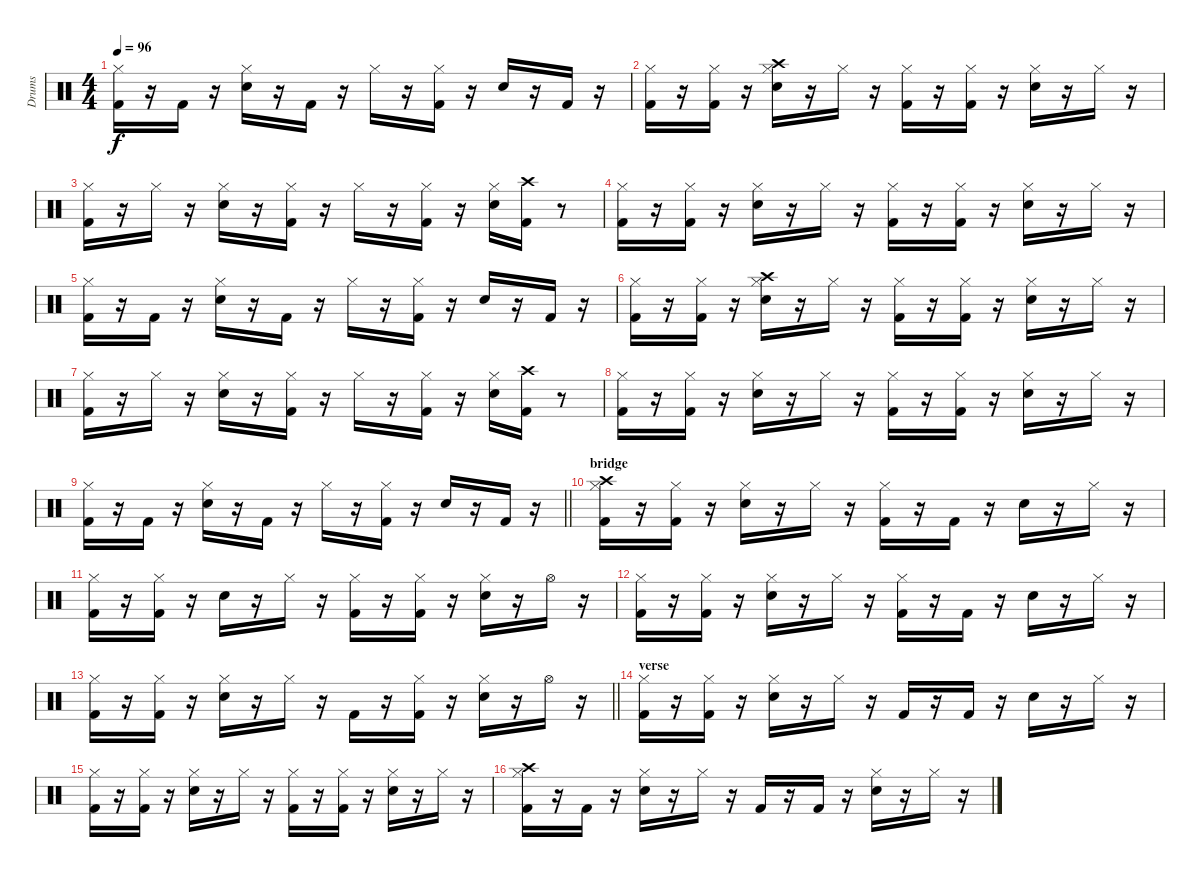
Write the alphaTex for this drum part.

\track ("Drums" "Drums") {instrument percussion}
\staff {score}
\articulation defaults
\ts (4 4)
\tempo 96
\clef neutral
\ks c
("Kick (hit) 2" "Hi-Hat (closed)").16{dy f} r.16 "Kick (hit) 2".16 r.16 ("Snare (hit) 2" "Hi-Hat (closed)").16 r.16 "Kick (hit) 2".16 r.16 "Hi-Hat (closed)".16 r.16 ("Kick (hit) 2" "Hi-Hat (closed)").16 r.16 "Snare (hit) 2".16 r.16 "Kick (hit) 2".16 r.16 |
("Kick (hit) 2" "Hi-Hat (closed)").16 r.16 ("Kick (hit) 2" "Hi-Hat (closed)").16 r.16 ("Snare (hit) 2" "Hi-Hat (closed)" "Crash high (hit)").16 r.16 "Hi-Hat (closed)".16 r.16 ("Kick (hit) 2" "Hi-Hat (closed)").16 r.16 ("Kick (hit) 2" "Hi-Hat (closed)").16 r.16 ("Snare (hit) 2" "Hi-Hat (closed)").16 r.16 "Hi-Hat (closed)".16 r.16 |
("Kick (hit) 2" "Hi-Hat (closed)").16 r.16 "Hi-Hat (closed)".16 r.16 ("Snare (hit) 2" "Hi-Hat (closed)").16 r.16 ("Kick (hit) 2" "Hi-Hat (closed)").16 r.16 "Hi-Hat (closed)".16 r.16 ("Kick (hit) 2" "Hi-Hat (closed)").16 r.16 ("Snare (hit) 2" "Hi-Hat (closed)").16 ("Kick (hit) 2" "Crash high (hit)").16 r.8 |
("Kick (hit) 2" "Hi-Hat (closed)").16 r.16 ("Kick (hit) 2" "Hi-Hat (closed)").16 r.16 ("Snare (hit) 2" "Hi-Hat (closed)").16 r.16 "Hi-Hat (closed)".16 r.16 ("Kick (hit) 2" "Hi-Hat (closed)").16 r.16 ("Kick (hit) 2" "Hi-Hat (closed)").16 r.16 ("Snare (hit) 2" "Hi-Hat (closed)").16 r.16 "Hi-Hat (closed)".16 r.16 |
("Kick (hit) 2" "Hi-Hat (closed)").16 r.16 "Kick (hit) 2".16 r.16 ("Snare (hit) 2" "Hi-Hat (closed)").16 r.16 "Kick (hit) 2".16 r.16 "Hi-Hat (closed)".16 r.16 ("Kick (hit) 2" "Hi-Hat (closed)").16 r.16 "Snare (hit) 2".16 r.16 "Kick (hit) 2".16 r.16 |
("Kick (hit) 2" "Hi-Hat (closed)").16 r.16 ("Kick (hit) 2" "Hi-Hat (closed)").16 r.16 ("Snare (hit) 2" "Hi-Hat (closed)" "Crash high (hit)").16 r.16 "Hi-Hat (closed)".16 r.16 ("Kick (hit) 2" "Hi-Hat (closed)").16 r.16 ("Kick (hit) 2" "Hi-Hat (closed)").16 r.16 ("Snare (hit) 2" "Hi-Hat (closed)").16 r.16 "Hi-Hat (closed)".16 r.16 |
("Kick (hit) 2" "Hi-Hat (closed)").16 r.16 "Hi-Hat (closed)".16 r.16 ("Snare (hit) 2" "Hi-Hat (closed)").16 r.16 ("Kick (hit) 2" "Hi-Hat (closed)").16 r.16 "Hi-Hat (closed)".16 r.16 ("Kick (hit) 2" "Hi-Hat (closed)").16 r.16 ("Snare (hit) 2" "Hi-Hat (closed)").16 ("Kick (hit) 2" "Crash high (hit)").16 r.8 |
("Kick (hit) 2" "Hi-Hat (closed)").16 r.16 ("Kick (hit) 2" "Hi-Hat (closed)").16 r.16 ("Snare (hit) 2" "Hi-Hat (closed)").16 r.16 "Hi-Hat (closed)".16 r.16 ("Kick (hit) 2" "Hi-Hat (closed)").16 r.16 ("Kick (hit) 2" "Hi-Hat (closed)").16 r.16 ("Snare (hit) 2" "Hi-Hat (closed)").16 r.16 "Hi-Hat (closed)".16 r.16 |
\barLineRight lightlight
("Kick (hit) 2" "Hi-Hat (closed)").16 r.16 "Kick (hit) 2".16 r.16 ("Snare (hit) 2" "Hi-Hat (closed)").16 r.16 "Kick (hit) 2".16 r.16 "Hi-Hat (closed)".16 r.16 ("Kick (hit) 2" "Hi-Hat (closed)").16 r.16 "Snare (hit) 2".16 r.16 "Kick (hit) 2".16 r.16 |
\section ("" "bridge")
("Kick (hit) 2" "Hi-Hat (closed)" "Crash high (hit)").16 r.16 ("Kick (hit) 2" "Hi-Hat (closed)").16 r.16 ("Snare (hit) 2" "Hi-Hat (closed)").16 r.16 "Hi-Hat (closed)".16 r.16 ("Kick (hit) 2" "Hi-Hat (closed)").16 r.16 "Kick (hit) 2".16 r.16 "Snare (hit) 2".16 r.16 "Hi-Hat (closed)".16 r.16 |
("Kick (hit) 2" "Hi-Hat (closed)").16 r.16 ("Kick (hit) 2" "Hi-Hat (closed)").16 r.16 "Snare (hit) 2".16 r.16 "Hi-Hat (closed)".16 r.16 ("Kick (hit) 2" "Hi-Hat (closed)").16 r.16 ("Kick (hit) 2" "Hi-Hat (closed)").16 r.16 ("Snare (hit) 2" "Hi-Hat (closed)").16 r.16 "Hi-Hat (open)".16 r.16 |
("Kick (hit) 2" "Hi-Hat (closed)").16 r.16 ("Kick (hit) 2" "Hi-Hat (closed)").16 r.16 ("Snare (hit) 2" "Hi-Hat (closed)").16 r.16 "Hi-Hat (closed)".16 r.16 ("Kick (hit) 2" "Hi-Hat (closed)").16 r.16 "Kick (hit) 2".16 r.16 "Snare (hit) 2".16 r.16 "Hi-Hat (closed)".16 r.16 |
\barLineRight lightlight
("Kick (hit) 2" "Hi-Hat (closed)").16 r.16 ("Kick (hit) 2" "Hi-Hat (closed)").16 r.16 ("Snare (hit) 2" "Hi-Hat (closed)").16 r.16 "Hi-Hat (closed)".16 r.16 "Kick (hit) 2".16 r.16 ("Kick (hit) 2" "Hi-Hat (closed)").16 r.16 ("Snare (hit) 2" "Hi-Hat (closed)").16 r.16 "Hi-Hat (open)".16 r.16 |
\section ("" "verse")
("Kick (hit) 2" "Hi-Hat (closed)").16 r.16 ("Kick (hit) 2" "Hi-Hat (closed)").16 r.16 ("Snare (hit) 2" "Hi-Hat (closed)").16 r.16 "Hi-Hat (closed)".16 r.16 "Kick (hit) 2".16 r.16 "Kick (hit) 2".16 r.16 "Snare (hit) 2".16 r.16 "Hi-Hat (closed)".16 r.16 |
("Kick (hit) 2" "Hi-Hat (closed)").16 r.16 ("Kick (hit) 2" "Hi-Hat (closed)").16 r.16 ("Snare (hit) 2" "Hi-Hat (closed)").16 r.16 "Hi-Hat (closed)".16 r.16 ("Kick (hit) 2" "Hi-Hat (closed)").16 r.16 ("Kick (hit) 2" "Hi-Hat (closed)").16 r.16 ("Snare (hit) 2" "Hi-Hat (closed)").16 r.16 "Hi-Hat (closed)".16 r.16 |
("Kick (hit) 2" "Hi-Hat (closed)" "Crash high (hit)").16 r.16 "Kick (hit) 2".16 r.16 ("Snare (hit) 2" "Hi-Hat (closed)").16 r.16 "Hi-Hat (closed)".16 r.16 "Kick (hit) 2".16 r.16 "Kick (hit) 2".16 r.16 ("Snare (hit) 2" "Hi-Hat (closed)").16 r.16 "Hi-Hat (closed)".16 r.16
